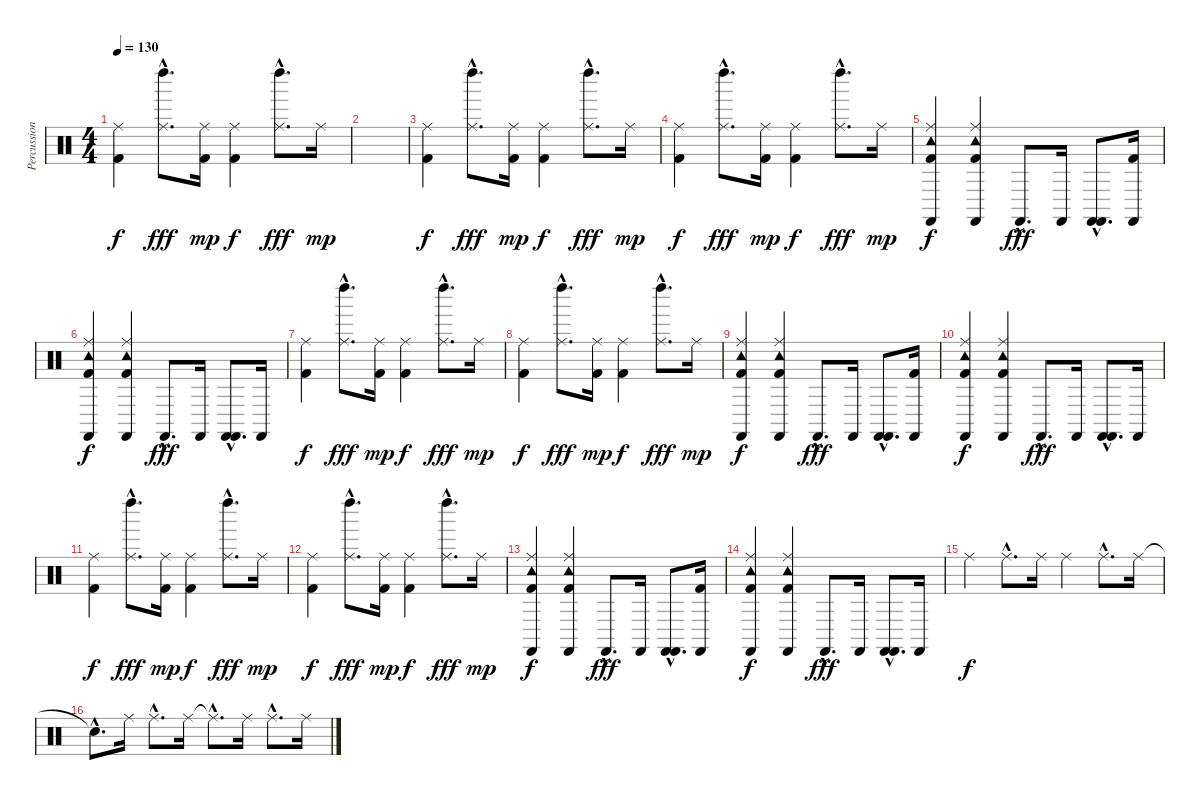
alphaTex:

\track ("Percussion" "Percussion") {instrument percussion}
\staff {score}
\articulation defaults
\ts (4 4)
\tempo 130
\clef neutral
\ks c
("Ride (middle)" "Kick (hit) 2").4{dy f} ("Ride (middle)"{hac} "Left Maraca (hit)"{hac}).8{d dy fff} ("Ride (middle)" "Kick (hit) 2").16{dy mp} ("Ride (middle)" "Kick (hit) 2").4{dy f} ("Ride (middle)"{hac} "Left Maraca (hit)"{hac}).8{d dy fff} "Ride (middle)".16{dy mp} |
|
("Ride (middle)" "Kick (hit) 2").4{dy f} ("Ride (middle)"{hac} "Left Maraca (hit)"{hac}).8{d dy fff} ("Ride (middle)" "Kick (hit) 2").16{dy mp} ("Ride (middle)" "Kick (hit) 2").4{dy f} ("Ride (middle)"{hac} "Left Maraca (hit)"{hac}).8{d dy fff} "Ride (middle)".16{dy mp} |
("Ride (middle)" "Kick (hit) 2").4{dy f} ("Ride (middle)"{hac} "Left Maraca (hit)"{hac}).8{d dy fff} ("Ride (middle)" "Kick (hit) 2").16{dy mp} ("Ride (middle)" "Kick (hit) 2").4{dy f} ("Ride (middle)"{hac} "Left Maraca (hit)"{hac}).8{d dy fff} "Ride (middle)".16{dy mp} |
("Ride (middle)" "Kick (hit) 2" "Tambourine (hit)" "Castanets (hit)").4{dy f} ("Ride (middle)" "Kick (hit) 2" "Tambourine (hit)" "Castanets (hit)").4 "Castanets (hit)"{hac}.8{d dy fff} "Castanets (hit)".16 ("Castanets (hit)"{hac} "Castanets (hit)"{hac}).8{d} ("Kick (hit) 2" "Castanets (hit)").16 |
("Ride (middle)" "Kick (hit) 2" "Tambourine (hit)" "Castanets (hit)").4{dy f} ("Ride (middle)" "Kick (hit) 2" "Tambourine (hit)" "Castanets (hit)").4 "Castanets (hit)"{hac}.8{d dy fff} "Castanets (hit)".16 ("Castanets (hit)"{hac} "Castanets (hit)"{hac}).8{d} "Castanets (hit)".16 |
("Ride (middle)" "Kick (hit) 2").4{dy f} ("Ride (middle)"{hac} "Left Maraca (hit)"{hac}).8{d dy fff} ("Ride (middle)" "Kick (hit) 2").16{dy mp} ("Ride (middle)" "Kick (hit) 2").4{dy f} ("Ride (middle)"{hac} "Left Maraca (hit)"{hac}).8{d dy fff} "Ride (middle)".16{dy mp} |
("Ride (middle)" "Kick (hit) 2").4{dy f} ("Ride (middle)"{hac} "Left Maraca (hit)"{hac}).8{d dy fff} ("Ride (middle)" "Kick (hit) 2").16{dy mp} ("Ride (middle)" "Kick (hit) 2").4{dy f} ("Ride (middle)"{hac} "Left Maraca (hit)"{hac}).8{d dy fff} "Ride (middle)".16{dy mp} |
("Ride (middle)" "Kick (hit) 2" "Tambourine (hit)" "Castanets (hit)").4{dy f} ("Ride (middle)" "Kick (hit) 2" "Tambourine (hit)" "Castanets (hit)").4 "Castanets (hit)"{hac}.8{d dy fff} "Castanets (hit)".16 ("Castanets (hit)"{hac} "Castanets (hit)"{hac}).8{d} ("Kick (hit) 2" "Castanets (hit)").16 |
("Ride (middle)" "Kick (hit) 2" "Tambourine (hit)" "Castanets (hit)").4{dy f} ("Ride (middle)" "Kick (hit) 2" "Tambourine (hit)" "Castanets (hit)").4 "Castanets (hit)"{hac}.8{d dy fff} "Castanets (hit)".16 ("Castanets (hit)"{hac} "Castanets (hit)"{hac}).8{d} "Castanets (hit)".16 |
("Ride (middle)" "Kick (hit) 2").4{dy f} ("Ride (middle)"{hac} "Left Maraca (hit)"{hac}).8{d dy fff} ("Ride (middle)" "Kick (hit) 2").16{dy mp} ("Ride (middle)" "Kick (hit) 2").4{dy f} ("Ride (middle)"{hac} "Left Maraca (hit)"{hac}).8{d dy fff} "Ride (middle)".16{dy mp} |
("Ride (middle)" "Kick (hit) 2").4{dy f} ("Ride (middle)"{hac} "Left Maraca (hit)"{hac}).8{d dy fff} ("Ride (middle)" "Kick (hit) 2").16{dy mp} ("Ride (middle)" "Kick (hit) 2").4{dy f} ("Ride (middle)"{hac} "Left Maraca (hit)"{hac}).8{d dy fff} "Ride (middle)".16{dy mp} |
("Ride (middle)" "Kick (hit) 2" "Tambourine (hit)" "Castanets (hit)").4{dy f} ("Ride (middle)" "Kick (hit) 2" "Tambourine (hit)" "Castanets (hit)").4 "Castanets (hit)"{hac}.8{d dy fff} "Castanets (hit)".16 ("Castanets (hit)"{hac} "Castanets (hit)"{hac}).8{d} ("Kick (hit) 2" "Castanets (hit)").16 |
("Ride (middle)" "Kick (hit) 2" "Tambourine (hit)" "Castanets (hit)").4{dy f} ("Ride (middle)" "Kick (hit) 2" "Tambourine (hit)" "Castanets (hit)").4 "Castanets (hit)"{hac}.8{d dy fff} "Castanets (hit)".16 ("Castanets (hit)"{hac} "Castanets (hit)"{hac}).8{d} "Castanets (hit)".16 |
"Ride (middle)".4{dy f} "Ride (middle)"{hac}.8{d} "Ride (middle)".16 "Ride (middle)".4 "Ride (middle)"{hac}.8{d} "Ride (middle)".16 |
"Snare (hit)"{hac t}.8{d} "Ride (middle)".16 "Ride (middle)"{hac}.8{d} "Ride (middle)".16 "Ride (middle)"{hac t}.8{d} "Ride (middle)".16 "Ride (middle)"{hac}.8{d} "Ride (middle)".16
